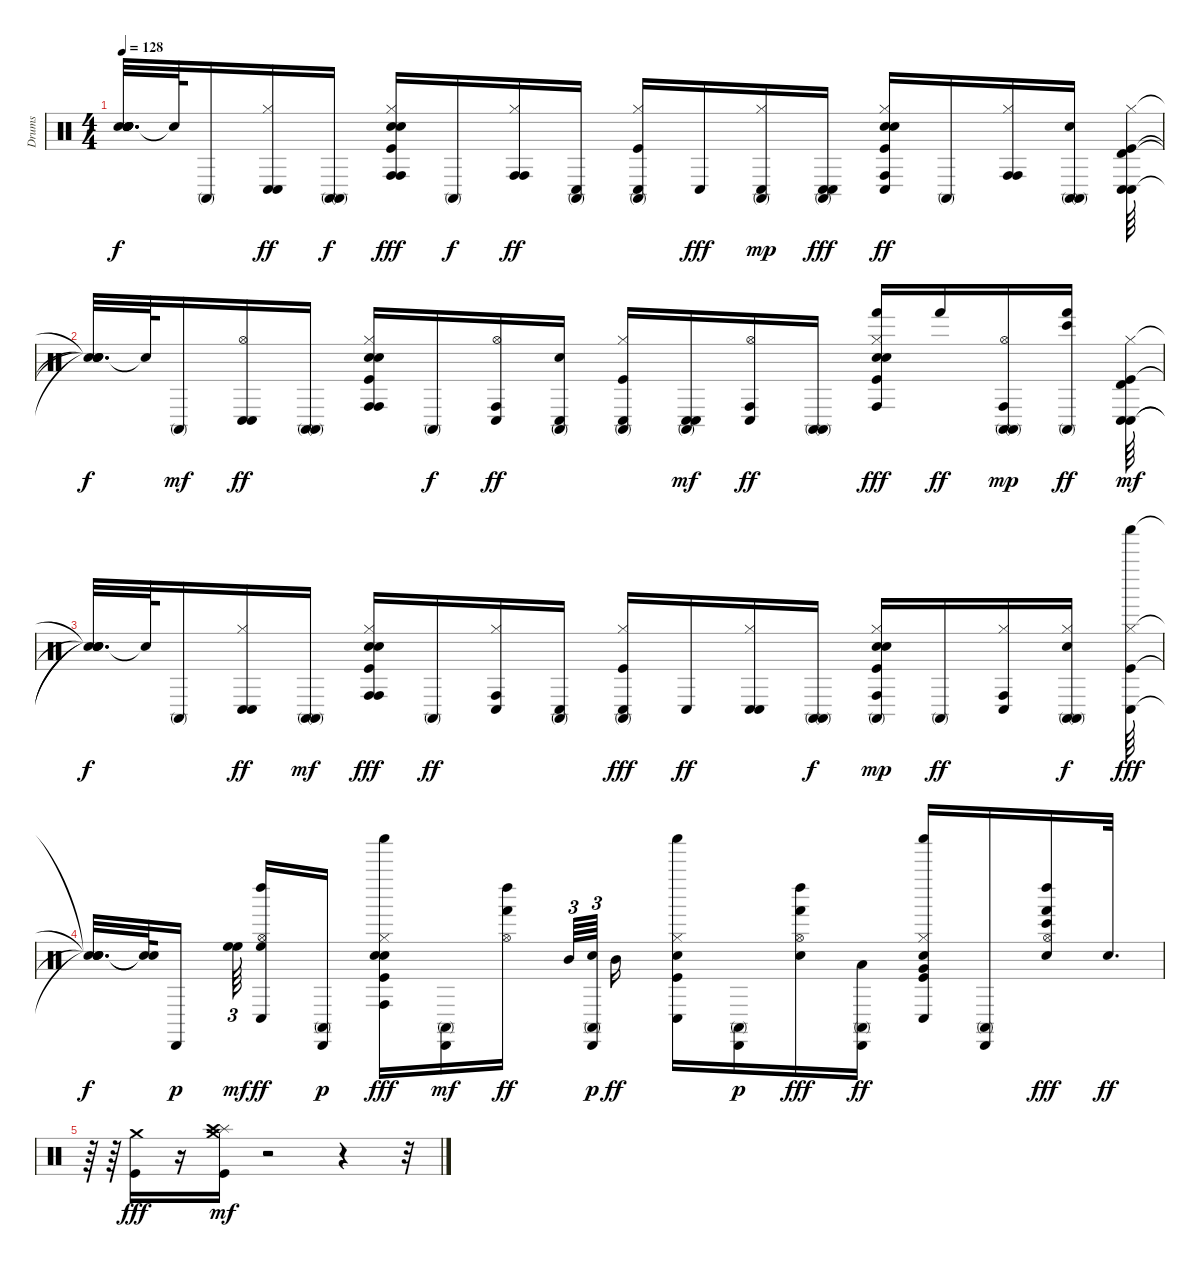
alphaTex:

\track ("Drums" "Drums") {instrument percussion}
\staff {score}
\articulation defaults
\ts (4 4)
\tempo 128
\clef neutral
\ks c
("Snare (hit)"{t} "Snare (hit)"{t} "Snare (hit)"{t} "Snare (hit)"{t} "Snare (hit)"{t} "Snare (hit)"{t}).32{d dy f} "Snare (hit)"{t}.64 "Conga high (mute)".16 ("Hi-Hat (closed)" "Conga low (hit)" "Conga low (hit)").16{dy ff} ("Conga high (mute)" "Conga high (mute)").16{dy f} ("Kick (hit)" "Snare (hit) 2" "Hand Clap (hit)" "Hi-Hat (closed)" "Conga high (hit)" "Conga high (hit)").16{dy fff} "Conga high (mute)".16{dy f} ("Hi-Hat (closed)" "Conga high (hit)" "Conga high (hit)").16{dy ff} ("Conga low (hit)" "Conga high (mute)").16 ("Kick (hit)" "Hi-Hat (closed)" "Conga high (mute)" "Conga low (hit)").16 "Conga low (hit)".16{dy fff} ("Hi-Hat (closed)" "Conga high (mute)" "Conga low (hit)").16{dy mp} ("Conga low (hit)" "Conga high (mute)" "Conga low (hit)").16{dy fff} ("Kick (hit)" "Snare (hit) 2" "Hand Clap (hit)" "Hi-Hat (closed)" "Conga low (hit)" "Conga high (hit)").16{dy ff} "Conga high (mute)".16 ("Hi-Hat (closed)" "Conga high (hit)" "Conga high (hit)").16 ("Snare (hit) 2" "Conga high (mute)" "Conga high (mute)").16 ("Kick (hit)" "Hi-Hat (closed)" "Conga low (hit)" "Timbale high (hit)" "Conga low (hit)").64 |
("Snare (hit)"{t} "Snare (hit)"{t} "Snare (hit)"{t} "Snare (hit)"{t}).32{d dy f} "Snare (hit)"{t}.64 "Conga high (mute)".16{dy mf} ("Hi-Hat (open)" "Conga low (hit)" "Conga low (hit)").16{dy ff} ("Conga high (mute)" "Conga high (mute)").16 ("Kick (hit)" "Snare (hit) 2" "Hand Clap (hit)" "Hi-Hat (closed)" "Conga high (hit)" "Conga high (hit)").16 "Conga high (mute)".16{dy f} ("Hi-Hat (open)" "Conga low (hit)" "Conga high (hit)").16{dy ff} ("Snare (hit) 2" "Conga low (hit)" "Conga high (mute)").16 ("Kick (hit)" "Hi-Hat (closed)" "Conga high (mute)" "Conga low (hit)").16 ("Conga low (hit)" "Conga high (mute)" "Conga low (hit)").16{dy mf} ("Hi-Hat (open)" "Conga low (hit)" "Conga high (hit)").16{dy ff} ("Conga high (mute)" "Conga high (mute)").16 ("Kick (hit)" "Snare (hit) 2" "Hand Clap (hit)" "Hi-Hat (closed)" "Conga high (hit)" "Hand (hit)").16{dy fff} "Hand (hit)".16{dy ff} ("Hi-Hat (open)" "Conga high (mute)" "Conga high (hit)" "Conga high (mute)").16{dy mp} ("Conga high (mute)" "Hand (hit)" "Bongo High (hit)").16{dy ff} ("Kick (hit)" "Hi-Hat (closed)" "Conga low (hit)" "Conga low (hit)" "Timbale high (hit)").64{dy mf} |
("Snare (hit)"{t} "Snare (hit)"{t} "Snare (hit)"{t} "Snare (hit)"{t}).32{d dy f} "Snare (hit)"{t}.64 "Conga high (mute)".16 ("Hi-Hat (closed)" "Conga low (hit)" "Conga low (hit)").16{dy ff} ("Conga high (mute)" "Conga high (mute)").16{dy mf} ("Kick (hit)" "Snare (hit) 2" "Hand Clap (hit)" "Hi-Hat (closed)" "Conga high (hit)" "Conga high (hit)").16{dy fff} "Conga high (mute)".16{dy ff} ("Hi-Hat (closed)" "Conga low (hit)" "Conga high (hit)").16 ("Conga low (hit)" "Conga high (mute)").16 ("Kick (hit)" "Hi-Hat (closed)" "Conga high (mute)" "Conga low (hit)").16{dy fff} "Conga low (hit)".16{dy ff} ("Hi-Hat (closed)" "Conga low (hit)" "Conga low (hit)").16 ("Conga high (mute)" "Conga high (mute)").16{dy f} ("Kick (hit)" "Snare (hit) 2" "Hand Clap (hit)" "Hi-Hat (closed)" "Conga high (hit)" "Conga high (mute)").16{dy mp} "Conga high (mute)".16{dy ff} ("Hi-Hat (closed)" "Conga low (hit)" "Conga high (hit)").16 ("Snare (hit) 2" "Hi-Hat (closed)" "Conga high (mute)" "Conga high (mute)").16{dy f} ("Kick (hit)" "Hi-Hat (closed)" "Shaker (hit)" "Conga low (hit)").64{dy fff} |
("Snare (hit)"{t} "Snare (hit)"{t} "Snare (hit)"{t} "Snare (hit)"{t}).32{d dy f} ("Snare (hit)"{t} "Snare (hit)"{t}).64 "Cabasa (hit)".16{dy p} ("High Floor Tom (hit)" "High Floor Tom (hit)").64{tu (3 2) dy mf} ("Hi-Hat (open)" "Left Maraca (hit)" "High Floor Tom (hit)" "Conga low (hit)").16{dy ff} ("Cabasa (hit)" "Conga high (mute)").16{dy p} ("Kick (hit)" "Snare (hit) 2" "Hand Clap (hit)" "Hi-Hat (closed)" "Shaker (hit)" "Conga high (hit)").16{dy fff} ("Cabasa (hit)" "Conga high (mute)").16{dy mf} ("Hi-Hat (open)" "Left Maraca (hit)" "Hand (hit)").16{dy ff} "Mid Tom (hit)".64{tu (3 2)} ("Snare (hit) 2" "Cabasa (hit)" "Conga high (mute)").64{tu (3 2) dy p} "Mid Tom (hit)".16{dy ff} ("Kick (hit)" "Snare (hit) 2" "Hi-Hat (closed)" "Shaker (hit)" "Conga low (hit)").16 ("Cabasa (hit)" "Conga high (mute)").16{dy p} ("Snare (hit) 2" "Hi-Hat (open)" "Left Maraca (hit)" "Hand (hit)").16{dy fff} ("Cabasa (hit)" "Conga high (mute)" "Low Tom (hit)").16{dy ff} ("Kick (hit)" "Hand Clap (hit)" "Hi-Hat (closed)" "Shaker (hit)" "Conga low (hit)" "Very Low Tom (hit)").16 ("Cabasa (hit)" "Conga high (mute)").16 ("Snare (hit) 2" "Hi-Hat (open)" "Left Maraca (hit)" "Hand (hit)" "Bongo High (hit)").16{dy fff} "Snare (hit) 2".32{d dy ff} |
r.64 r.64 ("Kick (hit)" "Crash medium (hit)").16{dy fff} r.16 ("Kick (hit)" "Splash (hit)" "Crash high (hit)" "Crash medium (hit)").16{dy mf} r.2 r.4 r.32
